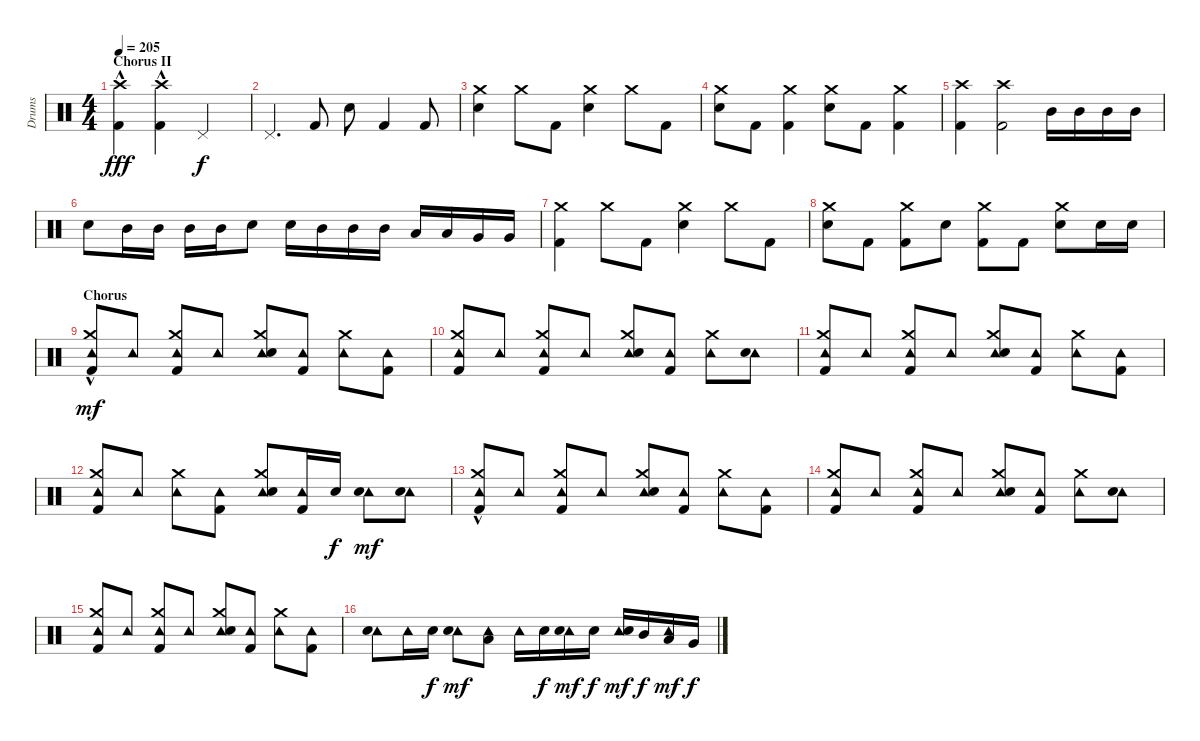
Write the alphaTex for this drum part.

\track ("Drums" "Drums") {instrument percussion}
\staff {score}
\articulation defaults
\ts (4 4)
\section ("" "Chorus II")
\tempo 205
\clef neutral
\ks c
("Crash high (hit)"{hac} "Kick (hit) 2"{hac}).4{dy fff} ("Crash high (hit)"{hac} "Kick (hit) 2"{hac}).4 "Pedal Hi-Hat (hit)".2{dy f} |
"Pedal Hi-Hat (hit)".4{d} "Kick (hit) 2".8 "Electric Snare (hit)".8 "Kick (hit) 2".4 "Kick (hit) 2".8 |
("Crash medium (hit)" "Electric Snare (hit)").4 "Crash medium (hit)".8 "Kick (hit) 2".8 ("Crash medium (hit)" "Electric Snare (hit)").4 "Crash medium (hit)".8 "Kick (hit) 2".8 |
("Crash medium (hit)" "Electric Snare (hit)").8 "Kick (hit) 2".8 ("Crash medium (hit)" "Kick (hit) 2").4 ("Crash medium (hit)" "Electric Snare (hit)").8 "Kick (hit) 2".8 ("Crash medium (hit)" "Kick (hit) 2").4 |
("Crash high (hit)" "Kick (hit) 2").4 ("Crash high (hit)" "Kick (hit) 2").2 "Mid Tom (hit)".16 "Mid Tom (hit)".16 "Mid Tom (hit)".16 "Mid Tom (hit)".16 |
"Electric Snare (hit)".8 "Mid Tom (hit)".16 "Mid Tom (hit)".16 "Mid Tom (hit)".16 "Mid Tom (hit)".16 "Electric Snare (hit)".8 "Electric Snare (hit)".16 "Mid Tom (hit)".16 "Mid Tom (hit)".16 "Mid Tom (hit)".16 "Low Tom (hit)".16 "Low Tom (hit)".16 "Very Low Tom (hit)".16 "Very Low Tom (hit)".16 |
("Crash medium (hit)" "Kick (hit) 2").4 "Crash medium (hit)".8 "Kick (hit) 2".8 ("Crash medium (hit)" "Electric Snare (hit)").4 "Crash medium (hit)".8 "Kick (hit) 2".8 |
("Crash medium (hit)" "Electric Snare (hit)").8 "Kick (hit) 2".8 ("Crash medium (hit)" "Kick (hit) 2").8 "Electric Snare (hit)".8 ("Crash medium (hit)" "Kick (hit) 2").8 "Kick (hit) 2".8 ("Crash medium (hit)" "Electric Snare (hit)").8 "Electric Snare (hit)".16 "Electric Snare (hit)".16 |
\section ("" "Chorus")
("Crash medium (hit)"{hac} "Tambourine (hit)" "Kick (hit) 2").8{dy mf} "Tambourine (hit)".8 ("Crash medium (hit)" "Tambourine (hit)" "Kick (hit) 2").8 "Tambourine (hit)".8 ("Crash medium (hit)" "Tambourine (hit)" "Electric Snare (hit)").8 ("Tambourine (hit)" "Kick (hit) 2").8 ("Crash medium (hit)" "Tambourine (hit)").8 ("Tambourine (hit)" "Kick (hit) 2").8 |
("Crash medium (hit)" "Tambourine (hit)" "Kick (hit) 2").8 "Tambourine (hit)".8 ("Crash medium (hit)" "Tambourine (hit)" "Kick (hit) 2").8 "Tambourine (hit)".8 ("Crash medium (hit)" "Tambourine (hit)" "Electric Snare (hit)").8 ("Tambourine (hit)" "Kick (hit) 2").8 ("Crash medium (hit)" "Tambourine (hit)").8 ("Tambourine (hit)" "Electric Snare (hit)").8 |
("Crash medium (hit)" "Tambourine (hit)" "Kick (hit) 2").8 "Tambourine (hit)".8 ("Crash medium (hit)" "Tambourine (hit)" "Kick (hit) 2").8 "Tambourine (hit)".8 ("Crash medium (hit)" "Tambourine (hit)" "Electric Snare (hit)").8 ("Tambourine (hit)" "Kick (hit) 2").8 ("Crash medium (hit)" "Tambourine (hit)").8 ("Tambourine (hit)" "Kick (hit) 2").8 |
("Crash medium (hit)" "Tambourine (hit)" "Kick (hit) 2").8 "Tambourine (hit)".8 ("Crash medium (hit)" "Tambourine (hit)").8 ("Tambourine (hit)" "Kick (hit) 2").8 ("Crash medium (hit)" "Tambourine (hit)" "Electric Snare (hit)").8 ("Tambourine (hit)" "Kick (hit) 2").16 "Electric Snare (hit)".16{dy f} ("Tambourine (hit)" "Electric Snare (hit)").8{dy mf} ("Tambourine (hit)" "Electric Snare (hit)").8 |
("Crash medium (hit)"{hac} "Tambourine (hit)" "Kick (hit) 2").8 "Tambourine (hit)".8 ("Crash medium (hit)" "Tambourine (hit)" "Kick (hit) 2").8 "Tambourine (hit)".8 ("Crash medium (hit)" "Tambourine (hit)" "Electric Snare (hit)").8 ("Tambourine (hit)" "Kick (hit) 2").8 ("Crash medium (hit)" "Tambourine (hit)").8 ("Tambourine (hit)" "Kick (hit) 2").8 |
("Crash medium (hit)" "Tambourine (hit)" "Kick (hit) 2").8 "Tambourine (hit)".8 ("Crash medium (hit)" "Tambourine (hit)" "Kick (hit) 2").8 "Tambourine (hit)".8 ("Crash medium (hit)" "Tambourine (hit)" "Electric Snare (hit)").8 ("Tambourine (hit)" "Kick (hit) 2").8 ("Crash medium (hit)" "Tambourine (hit)").8 ("Tambourine (hit)" "Electric Snare (hit)").8 |
("Crash medium (hit)" "Tambourine (hit)" "Kick (hit) 2").8 "Tambourine (hit)".8 ("Crash medium (hit)" "Tambourine (hit)" "Kick (hit) 2").8 "Tambourine (hit)".8 ("Crash medium (hit)" "Tambourine (hit)" "Electric Snare (hit)").8 ("Tambourine (hit)" "Kick (hit) 2").8 ("Crash medium (hit)" "Tambourine (hit)").8 ("Tambourine (hit)" "Kick (hit) 2").8 |
("Tambourine (hit)" "Electric Snare (hit)").8 "Tambourine (hit)".16 "Electric Snare (hit)".16{dy f} ("Tambourine (hit)" "Electric Snare (hit)").8{dy mf} ("Tambourine (hit)" "Low Tom (hit)").8 "Tambourine (hit)".16 "Electric Snare (hit)".16{dy f} ("Tambourine (hit)" "Electric Snare (hit)").16{dy mf} "Electric Snare (hit)".16{dy f} ("Tambourine (hit)" "Electric Snare (hit)").16{dy mf} "Mid Tom (hit)".16{dy f} ("Tambourine (hit)" "Low Tom (hit)").16{dy mf} "Very Low Tom (hit)".16{dy f}
